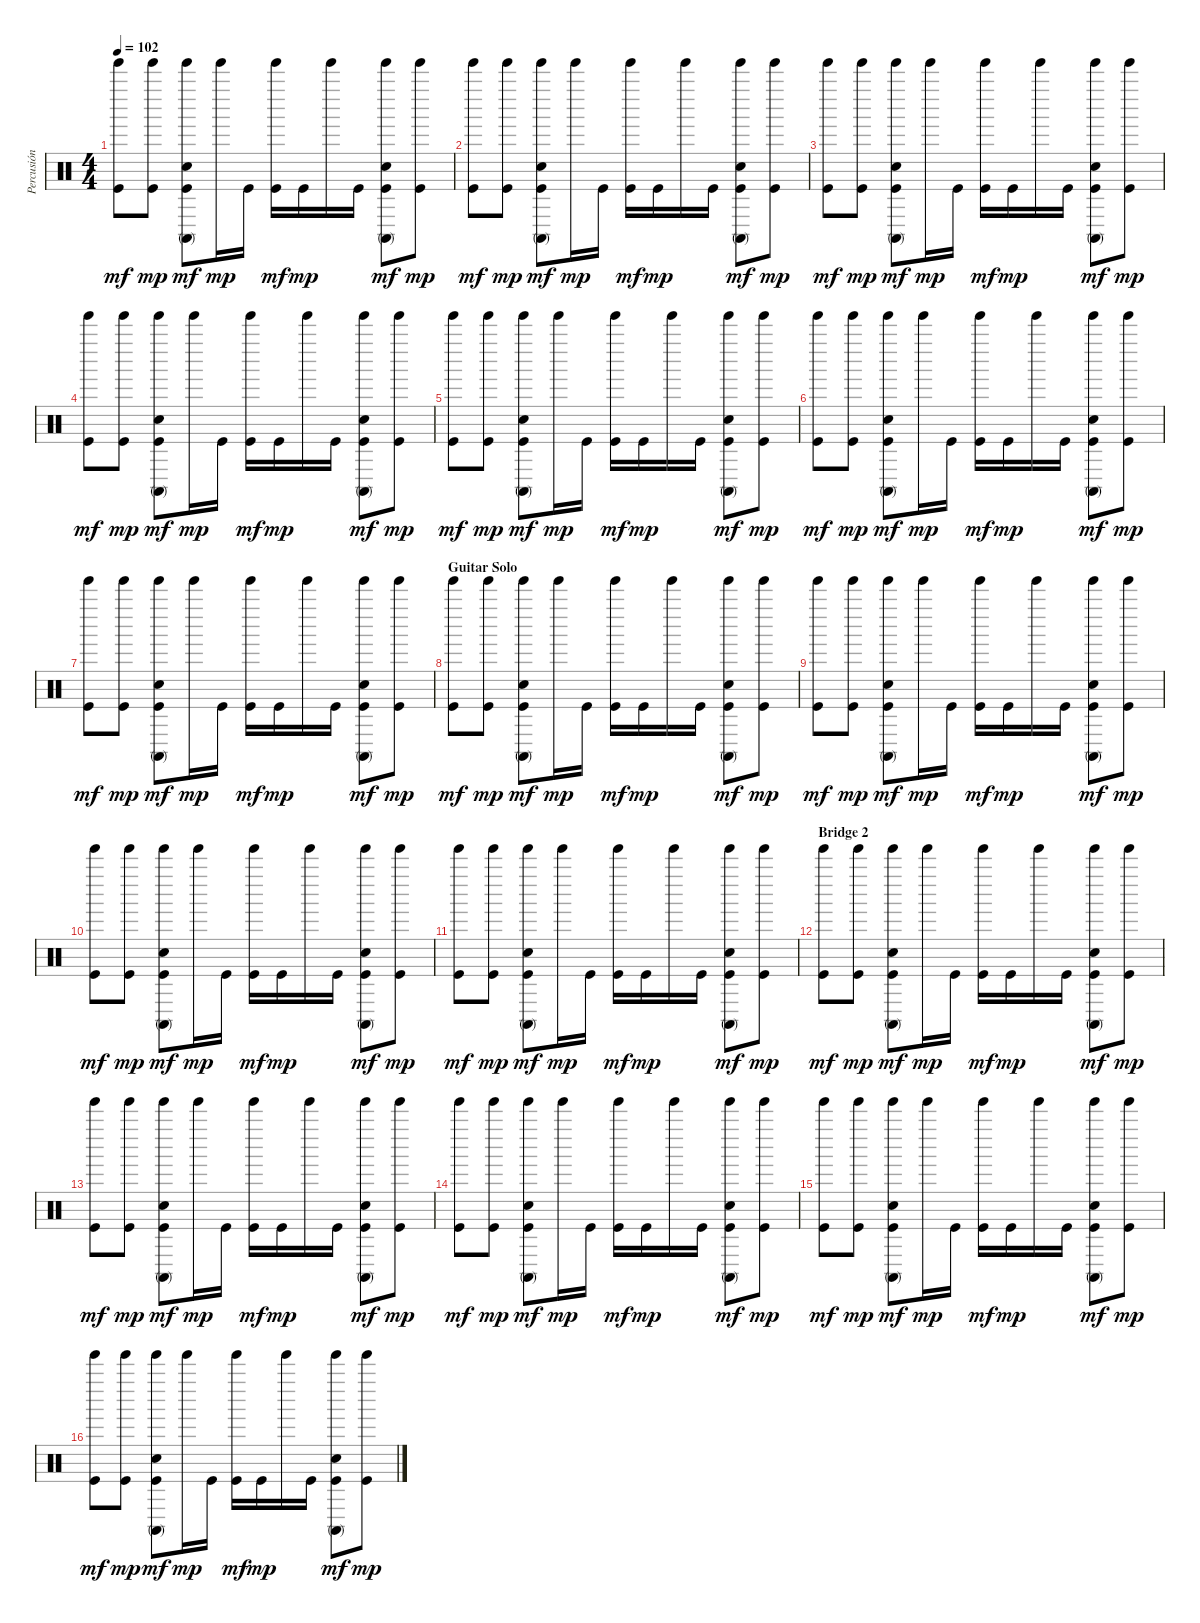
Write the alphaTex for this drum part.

\track ("Percusión" "Percusión") {instrument percussion}
\staff {score}
\articulation defaults
\ts (4 4)
\tempo 102
\clef neutral
\ks c
("Kick (hit)" "Tinkle Bell (hit)").8{dy mf} ("Kick (hit)" "Tinkle Bell (hit)").8{dy mp} ("Kick (hit)" "Snare (hit) 2" "Conga high (mute)" "Tinkle Bell (hit)").8{dy mf} "Tinkle Bell (hit)".16{dy mp} "Kick (hit)".16 ("Kick (hit)" "Tinkle Bell (hit)").16{dy mf} "Kick (hit)".16{dy mp} "Tinkle Bell (hit)".16 "Kick (hit)".16 ("Kick (hit)" "Snare (hit) 2" "Conga high (mute)" "Tinkle Bell (hit)").8{dy mf} ("Kick (hit)" "Tinkle Bell (hit)").8{dy mp} |
("Kick (hit)" "Tinkle Bell (hit)").8{dy mf} ("Kick (hit)" "Tinkle Bell (hit)").8{dy mp} ("Kick (hit)" "Snare (hit) 2" "Conga high (mute)" "Tinkle Bell (hit)").8{dy mf} "Tinkle Bell (hit)".16{dy mp} "Kick (hit)".16 ("Kick (hit)" "Tinkle Bell (hit)").16{dy mf} "Kick (hit)".16{dy mp} "Tinkle Bell (hit)".16 "Kick (hit)".16 ("Kick (hit)" "Snare (hit) 2" "Conga high (mute)" "Tinkle Bell (hit)").8{dy mf} ("Kick (hit)" "Tinkle Bell (hit)").8{dy mp} |
("Kick (hit)" "Tinkle Bell (hit)").8{dy mf} ("Kick (hit)" "Tinkle Bell (hit)").8{dy mp} ("Kick (hit)" "Snare (hit) 2" "Conga high (mute)" "Tinkle Bell (hit)").8{dy mf} "Tinkle Bell (hit)".16{dy mp} "Kick (hit)".16 ("Kick (hit)" "Tinkle Bell (hit)").16{dy mf} "Kick (hit)".16{dy mp} "Tinkle Bell (hit)".16 "Kick (hit)".16 ("Kick (hit)" "Snare (hit) 2" "Conga high (mute)" "Tinkle Bell (hit)").8{dy mf} ("Kick (hit)" "Tinkle Bell (hit)").8{dy mp} |
("Kick (hit)" "Tinkle Bell (hit)").8{dy mf} ("Kick (hit)" "Tinkle Bell (hit)").8{dy mp} ("Kick (hit)" "Snare (hit) 2" "Conga high (mute)" "Tinkle Bell (hit)").8{dy mf} "Tinkle Bell (hit)".16{dy mp} "Kick (hit)".16 ("Kick (hit)" "Tinkle Bell (hit)").16{dy mf} "Kick (hit)".16{dy mp} "Tinkle Bell (hit)".16 "Kick (hit)".16 ("Kick (hit)" "Snare (hit) 2" "Conga high (mute)" "Tinkle Bell (hit)").8{dy mf} ("Kick (hit)" "Tinkle Bell (hit)").8{dy mp} |
("Kick (hit)" "Tinkle Bell (hit)").8{dy mf} ("Kick (hit)" "Tinkle Bell (hit)").8{dy mp} ("Kick (hit)" "Snare (hit) 2" "Conga high (mute)" "Tinkle Bell (hit)").8{dy mf} "Tinkle Bell (hit)".16{dy mp} "Kick (hit)".16 ("Kick (hit)" "Tinkle Bell (hit)").16{dy mf} "Kick (hit)".16{dy mp} "Tinkle Bell (hit)".16 "Kick (hit)".16 ("Kick (hit)" "Snare (hit) 2" "Conga high (mute)" "Tinkle Bell (hit)").8{dy mf} ("Kick (hit)" "Tinkle Bell (hit)").8{dy mp} |
("Kick (hit)" "Tinkle Bell (hit)").8{dy mf} ("Kick (hit)" "Tinkle Bell (hit)").8{dy mp} ("Kick (hit)" "Snare (hit) 2" "Conga high (mute)" "Tinkle Bell (hit)").8{dy mf} "Tinkle Bell (hit)".16{dy mp} "Kick (hit)".16 ("Kick (hit)" "Tinkle Bell (hit)").16{dy mf} "Kick (hit)".16{dy mp} "Tinkle Bell (hit)".16 "Kick (hit)".16 ("Kick (hit)" "Snare (hit) 2" "Conga high (mute)" "Tinkle Bell (hit)").8{dy mf} ("Kick (hit)" "Tinkle Bell (hit)").8{dy mp} |
("Kick (hit)" "Tinkle Bell (hit)").8{dy mf} ("Kick (hit)" "Tinkle Bell (hit)").8{dy mp} ("Kick (hit)" "Snare (hit) 2" "Conga high (mute)" "Tinkle Bell (hit)").8{dy mf} "Tinkle Bell (hit)".16{dy mp} "Kick (hit)".16 ("Kick (hit)" "Tinkle Bell (hit)").16{dy mf} "Kick (hit)".16{dy mp} "Tinkle Bell (hit)".16 "Kick (hit)".16 ("Kick (hit)" "Snare (hit) 2" "Conga high (mute)" "Tinkle Bell (hit)").8{dy mf} ("Kick (hit)" "Tinkle Bell (hit)").8{dy mp} |
\section ("" "Guitar Solo")
("Kick (hit)" "Tinkle Bell (hit)").8{dy mf} ("Kick (hit)" "Tinkle Bell (hit)").8{dy mp} ("Kick (hit)" "Snare (hit) 2" "Conga high (mute)" "Tinkle Bell (hit)").8{dy mf} "Tinkle Bell (hit)".16{dy mp} "Kick (hit)".16 ("Kick (hit)" "Tinkle Bell (hit)").16{dy mf} "Kick (hit)".16{dy mp} "Tinkle Bell (hit)".16 "Kick (hit)".16 ("Kick (hit)" "Snare (hit) 2" "Conga high (mute)" "Tinkle Bell (hit)").8{dy mf} ("Kick (hit)" "Tinkle Bell (hit)").8{dy mp} |
("Kick (hit)" "Tinkle Bell (hit)").8{dy mf} ("Kick (hit)" "Tinkle Bell (hit)").8{dy mp} ("Kick (hit)" "Snare (hit) 2" "Conga high (mute)" "Tinkle Bell (hit)").8{dy mf} "Tinkle Bell (hit)".16{dy mp} "Kick (hit)".16 ("Kick (hit)" "Tinkle Bell (hit)").16{dy mf} "Kick (hit)".16{dy mp} "Tinkle Bell (hit)".16 "Kick (hit)".16 ("Kick (hit)" "Snare (hit) 2" "Conga high (mute)" "Tinkle Bell (hit)").8{dy mf} ("Kick (hit)" "Tinkle Bell (hit)").8{dy mp} |
("Kick (hit)" "Tinkle Bell (hit)").8{dy mf} ("Kick (hit)" "Tinkle Bell (hit)").8{dy mp} ("Kick (hit)" "Snare (hit) 2" "Conga high (mute)" "Tinkle Bell (hit)").8{dy mf} "Tinkle Bell (hit)".16{dy mp} "Kick (hit)".16 ("Kick (hit)" "Tinkle Bell (hit)").16{dy mf} "Kick (hit)".16{dy mp} "Tinkle Bell (hit)".16 "Kick (hit)".16 ("Kick (hit)" "Snare (hit) 2" "Conga high (mute)" "Tinkle Bell (hit)").8{dy mf} ("Kick (hit)" "Tinkle Bell (hit)").8{dy mp} |
("Kick (hit)" "Tinkle Bell (hit)").8{dy mf} ("Kick (hit)" "Tinkle Bell (hit)").8{dy mp} ("Kick (hit)" "Snare (hit) 2" "Conga high (mute)" "Tinkle Bell (hit)").8{dy mf} "Tinkle Bell (hit)".16{dy mp} "Kick (hit)".16 ("Kick (hit)" "Tinkle Bell (hit)").16{dy mf} "Kick (hit)".16{dy mp} "Tinkle Bell (hit)".16 "Kick (hit)".16 ("Kick (hit)" "Snare (hit) 2" "Conga high (mute)" "Tinkle Bell (hit)").8{dy mf} ("Kick (hit)" "Tinkle Bell (hit)").8{dy mp} |
\section ("" "Bridge 2")
("Kick (hit)" "Tinkle Bell (hit)").8{dy mf} ("Kick (hit)" "Tinkle Bell (hit)").8{dy mp} ("Kick (hit)" "Snare (hit) 2" "Conga high (mute)" "Tinkle Bell (hit)").8{dy mf} "Tinkle Bell (hit)".16{dy mp} "Kick (hit)".16 ("Kick (hit)" "Tinkle Bell (hit)").16{dy mf} "Kick (hit)".16{dy mp} "Tinkle Bell (hit)".16 "Kick (hit)".16 ("Kick (hit)" "Snare (hit) 2" "Conga high (mute)" "Tinkle Bell (hit)").8{dy mf} ("Kick (hit)" "Tinkle Bell (hit)").8{dy mp} |
("Kick (hit)" "Tinkle Bell (hit)").8{dy mf} ("Kick (hit)" "Tinkle Bell (hit)").8{dy mp} ("Kick (hit)" "Snare (hit) 2" "Conga high (mute)" "Tinkle Bell (hit)").8{dy mf} "Tinkle Bell (hit)".16{dy mp} "Kick (hit)".16 ("Kick (hit)" "Tinkle Bell (hit)").16{dy mf} "Kick (hit)".16{dy mp} "Tinkle Bell (hit)".16 "Kick (hit)".16 ("Kick (hit)" "Snare (hit) 2" "Conga high (mute)" "Tinkle Bell (hit)").8{dy mf} ("Kick (hit)" "Tinkle Bell (hit)").8{dy mp} |
("Kick (hit)" "Tinkle Bell (hit)").8{dy mf} ("Kick (hit)" "Tinkle Bell (hit)").8{dy mp} ("Kick (hit)" "Snare (hit) 2" "Conga high (mute)" "Tinkle Bell (hit)").8{dy mf} "Tinkle Bell (hit)".16{dy mp} "Kick (hit)".16 ("Kick (hit)" "Tinkle Bell (hit)").16{dy mf} "Kick (hit)".16{dy mp} "Tinkle Bell (hit)".16 "Kick (hit)".16 ("Kick (hit)" "Snare (hit) 2" "Conga high (mute)" "Tinkle Bell (hit)").8{dy mf} ("Kick (hit)" "Tinkle Bell (hit)").8{dy mp} |
("Kick (hit)" "Tinkle Bell (hit)").8{dy mf} ("Kick (hit)" "Tinkle Bell (hit)").8{dy mp} ("Kick (hit)" "Snare (hit) 2" "Conga high (mute)" "Tinkle Bell (hit)").8{dy mf} "Tinkle Bell (hit)".16{dy mp} "Kick (hit)".16 ("Kick (hit)" "Tinkle Bell (hit)").16{dy mf} "Kick (hit)".16{dy mp} "Tinkle Bell (hit)".16 "Kick (hit)".16 ("Kick (hit)" "Snare (hit) 2" "Conga high (mute)" "Tinkle Bell (hit)").8{dy mf} ("Kick (hit)" "Tinkle Bell (hit)").8{dy mp} |
("Kick (hit)" "Tinkle Bell (hit)").8{dy mf} ("Kick (hit)" "Tinkle Bell (hit)").8{dy mp} ("Kick (hit)" "Snare (hit) 2" "Conga high (mute)" "Tinkle Bell (hit)").8{dy mf} "Tinkle Bell (hit)".16{dy mp} "Kick (hit)".16 ("Kick (hit)" "Tinkle Bell (hit)").16{dy mf} "Kick (hit)".16{dy mp} "Tinkle Bell (hit)".16 "Kick (hit)".16 ("Kick (hit)" "Snare (hit) 2" "Conga high (mute)" "Tinkle Bell (hit)").8{dy mf} ("Kick (hit)" "Tinkle Bell (hit)").8{dy mp}
